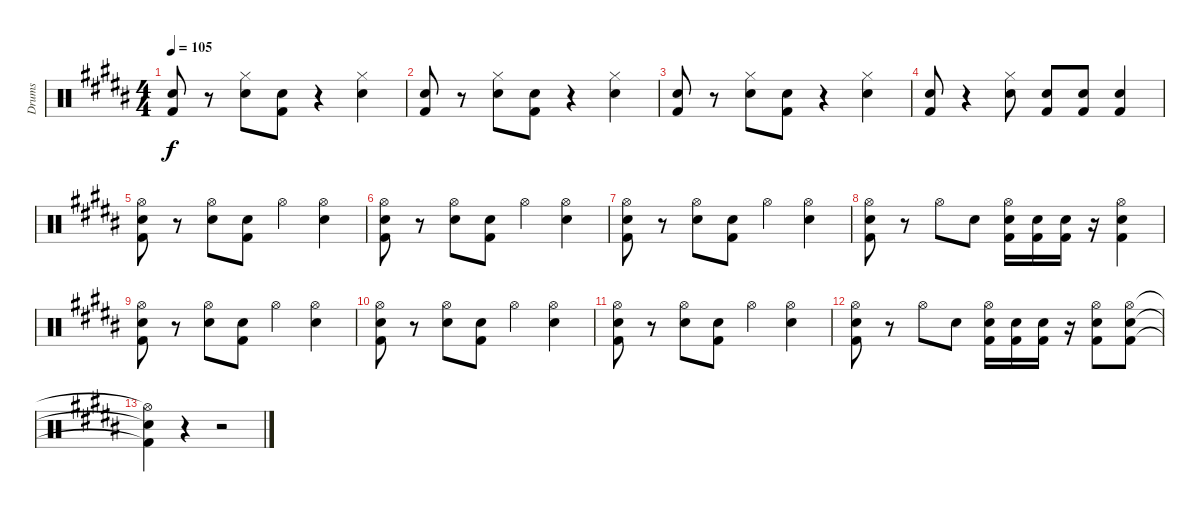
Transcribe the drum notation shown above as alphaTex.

\track ("Drums" "Drums") {instrument percussion}
\staff {score}
\articulation defaults
\ts (4 4)
\tempo 105
\clef neutral
\ks b
("Electric Snare (hit)" "Kick (hit) 2").8{dy f} r.8 ("Hi-Hat (closed)" "Electric Snare (hit)").8 ("Electric Snare (hit)" "Kick (hit) 2").8 r.4 ("Hi-Hat (closed)" "Electric Snare (hit)").4 |
("Electric Snare (hit)" "Kick (hit) 2").8 r.8 ("Hi-Hat (closed)" "Electric Snare (hit)").8 ("Electric Snare (hit)" "Kick (hit) 2").8 r.4 ("Hi-Hat (closed)" "Electric Snare (hit)").4 |
("Electric Snare (hit)" "Kick (hit) 2").8 r.8 ("Hi-Hat (closed)" "Electric Snare (hit)").8 ("Electric Snare (hit)" "Kick (hit) 2").8 r.4 ("Hi-Hat (closed)" "Electric Snare (hit)").4 |
("Electric Snare (hit)" "Kick (hit) 2").8 r.4 ("Hi-Hat (closed)" "Electric Snare (hit)").8 ("Electric Snare (hit)" "Kick (hit) 2").8 ("Electric Snare (hit)" "Kick (hit) 2").8 ("Electric Snare (hit)" "Kick (hit) 2").4 |
("Hi-Hat (open)" "Electric Snare (hit)" "Kick (hit) 2").8 r.8 ("Hi-Hat (open)" "Electric Snare (hit)").8 ("Electric Snare (hit)" "Kick (hit) 2").8 "Hi-Hat (open)".4 ("Hi-Hat (open)" "Electric Snare (hit)").4 |
("Hi-Hat (open)" "Electric Snare (hit)" "Kick (hit) 2").8 r.8 ("Hi-Hat (open)" "Electric Snare (hit)").8 ("Electric Snare (hit)" "Kick (hit) 2").8 "Hi-Hat (open)".4 ("Hi-Hat (open)" "Electric Snare (hit)").4 |
("Hi-Hat (open)" "Electric Snare (hit)" "Kick (hit) 2").8 r.8 ("Hi-Hat (open)" "Electric Snare (hit)").8 ("Electric Snare (hit)" "Kick (hit) 2").8 "Hi-Hat (open)".4 ("Hi-Hat (open)" "Electric Snare (hit)").4 |
("Hi-Hat (open)" "Electric Snare (hit)" "Kick (hit) 2").8 r.8 "Hi-Hat (open)".8 "Electric Snare (hit)".8 ("Hi-Hat (open)" "Electric Snare (hit)" "Kick (hit) 2").16 ("Electric Snare (hit)" "Kick (hit) 2").16 ("Electric Snare (hit)" "Kick (hit) 2").16 r.16 ("Hi-Hat (open)" "Electric Snare (hit)" "Kick (hit) 2").4 |
("Hi-Hat (open)" "Electric Snare (hit)" "Kick (hit) 2").8 r.8 ("Hi-Hat (open)" "Electric Snare (hit)").8 ("Electric Snare (hit)" "Kick (hit) 2").8 "Hi-Hat (open)".4 ("Hi-Hat (open)" "Electric Snare (hit)").4 |
("Hi-Hat (open)" "Electric Snare (hit)" "Kick (hit) 2").8 r.8 ("Hi-Hat (open)" "Electric Snare (hit)").8 ("Electric Snare (hit)" "Kick (hit) 2").8 "Hi-Hat (open)".4 ("Hi-Hat (open)" "Electric Snare (hit)").4 |
("Hi-Hat (open)" "Electric Snare (hit)" "Kick (hit) 2").8 r.8 ("Hi-Hat (open)" "Electric Snare (hit)").8 ("Electric Snare (hit)" "Kick (hit) 2").8 "Hi-Hat (open)".4 ("Hi-Hat (open)" "Electric Snare (hit)").4 |
("Hi-Hat (open)" "Electric Snare (hit)" "Kick (hit) 2").8 r.8 "Hi-Hat (open)".8 "Electric Snare (hit)".8 ("Hi-Hat (open)" "Electric Snare (hit)" "Kick (hit) 2").16 ("Electric Snare (hit)" "Kick (hit) 2").16 ("Electric Snare (hit)" "Kick (hit) 2").16 r.16 ("Hi-Hat (open)" "Electric Snare (hit)" "Kick (hit) 2").8 ("Hi-Hat (open)" "Electric Snare (hit)" "Kick (hit) 2").8 |
("Hi-Hat (open)"{t} "Electric Snare (hit)"{t} "Kick (hit) 2"{t}).4 r.4 r.2
